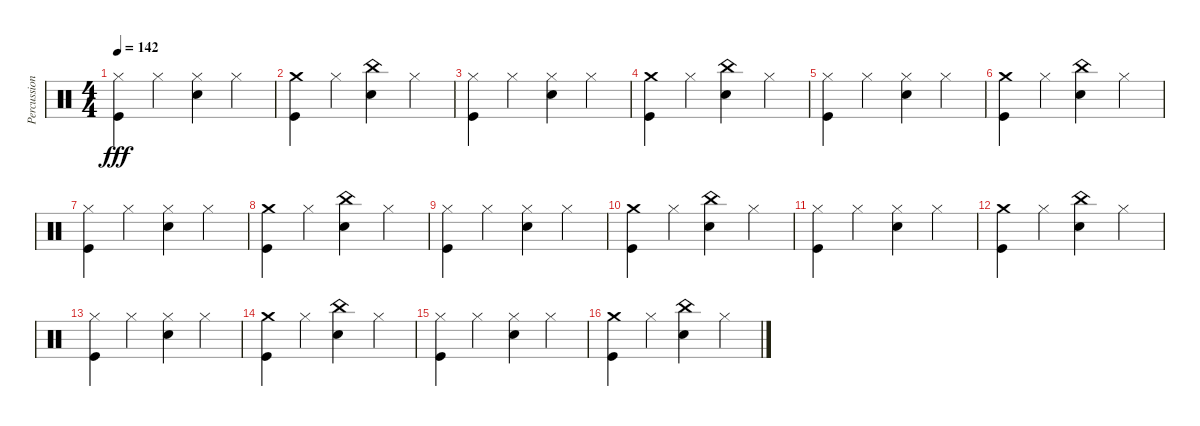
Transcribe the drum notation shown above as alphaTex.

\track ("Percussions" "Percussion") {instrument percussion}
\staff {score}
\articulation defaults
\ts (4 4)
\tempo 142
\clef neutral
\ks c
("Hi-Hat (closed)" "Kick (hit)").4{dy fff} "Hi-Hat (closed)".4 ("Hi-Hat (closed)" "Snare (hit) 2").4 "Hi-Hat (closed)".4 |
("Crash medium (hit)" "Kick (hit)").4 "Hi-Hat (closed)".4 ("China (hit)" "Snare (hit) 2").4 "Hi-Hat (closed)".4 |
("Hi-Hat (closed)" "Kick (hit)").4 "Hi-Hat (closed)".4 ("Hi-Hat (closed)" "Snare (hit) 2").4 "Hi-Hat (closed)".4 |
("Crash medium (hit)" "Kick (hit)").4 "Hi-Hat (closed)".4 ("China (hit)" "Snare (hit) 2").4 "Hi-Hat (closed)".4 |
("Hi-Hat (closed)" "Kick (hit)").4 "Hi-Hat (closed)".4 ("Hi-Hat (closed)" "Snare (hit) 2").4 "Hi-Hat (closed)".4 |
("Crash medium (hit)" "Kick (hit)").4 "Hi-Hat (closed)".4 ("China (hit)" "Snare (hit) 2").4 "Hi-Hat (closed)".4 |
("Hi-Hat (closed)" "Kick (hit)").4 "Hi-Hat (closed)".4 ("Hi-Hat (closed)" "Snare (hit) 2").4 "Hi-Hat (closed)".4 |
("Crash medium (hit)" "Kick (hit)").4 "Hi-Hat (closed)".4 ("China (hit)" "Snare (hit) 2").4 "Hi-Hat (closed)".4 |
("Hi-Hat (closed)" "Kick (hit)").4 "Hi-Hat (closed)".4 ("Hi-Hat (closed)" "Snare (hit) 2").4 "Hi-Hat (closed)".4 |
("Crash medium (hit)" "Kick (hit)").4 "Hi-Hat (closed)".4 ("China (hit)" "Snare (hit) 2").4 "Hi-Hat (closed)".4 |
("Hi-Hat (closed)" "Kick (hit)").4 "Hi-Hat (closed)".4 ("Hi-Hat (closed)" "Snare (hit) 2").4 "Hi-Hat (closed)".4 |
("Crash medium (hit)" "Kick (hit)").4 "Hi-Hat (closed)".4 ("China (hit)" "Snare (hit) 2").4 "Hi-Hat (closed)".4 |
("Hi-Hat (closed)" "Kick (hit)").4 "Hi-Hat (closed)".4 ("Hi-Hat (closed)" "Snare (hit) 2").4 "Hi-Hat (closed)".4 |
("Crash medium (hit)" "Kick (hit)").4 "Hi-Hat (closed)".4 ("China (hit)" "Snare (hit) 2").4 "Hi-Hat (closed)".4 |
("Hi-Hat (closed)" "Kick (hit)").4 "Hi-Hat (closed)".4 ("Hi-Hat (closed)" "Snare (hit) 2").4 "Hi-Hat (closed)".4 |
("Crash medium (hit)" "Kick (hit)").4 "Hi-Hat (closed)".4 ("China (hit)" "Snare (hit) 2").4 "Hi-Hat (closed)".4
